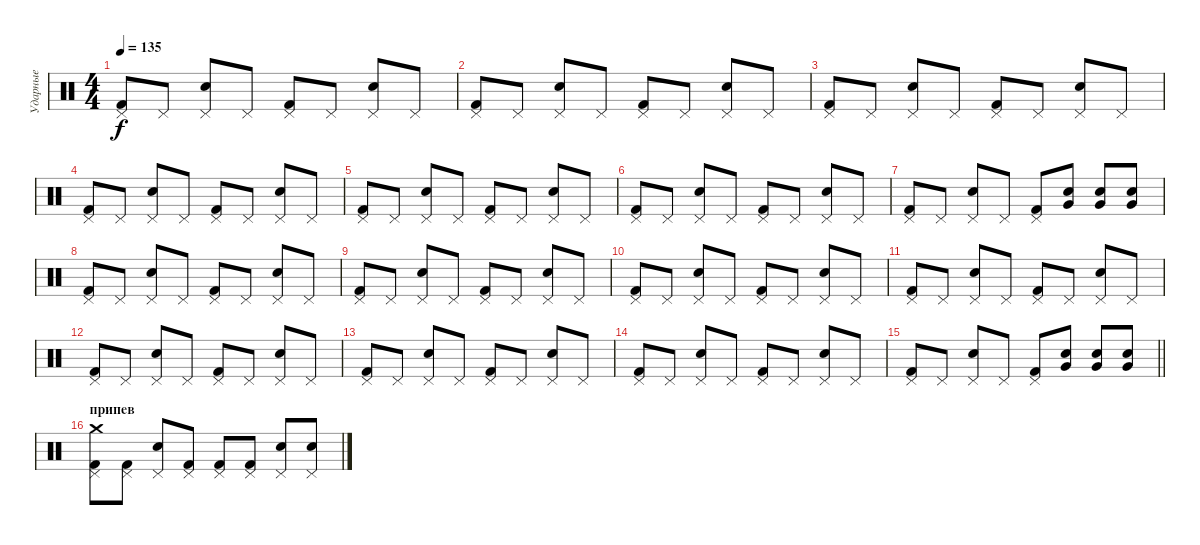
\track ("Ударные" "Ударные") {instrument percussion}
\staff {score}
\articulation defaults
\ts (4 4)
\tempo 135
\clef neutral
\ks c
("Pedal Hi-Hat (hit)" "Kick (hit) 2").8{dy f} "Pedal Hi-Hat (hit)".8 ("Pedal Hi-Hat (hit)" "Electric Snare (hit)").8 "Pedal Hi-Hat (hit)".8 ("Pedal Hi-Hat (hit)" "Kick (hit) 2").8 "Pedal Hi-Hat (hit)".8 ("Pedal Hi-Hat (hit)" "Electric Snare (hit)").8 "Pedal Hi-Hat (hit)".8 |
("Pedal Hi-Hat (hit)" "Kick (hit) 2").8 "Pedal Hi-Hat (hit)".8 ("Pedal Hi-Hat (hit)" "Electric Snare (hit)").8 "Pedal Hi-Hat (hit)".8 ("Pedal Hi-Hat (hit)" "Kick (hit) 2").8 "Pedal Hi-Hat (hit)".8 ("Pedal Hi-Hat (hit)" "Electric Snare (hit)").8 "Pedal Hi-Hat (hit)".8 |
("Pedal Hi-Hat (hit)" "Kick (hit) 2").8 "Pedal Hi-Hat (hit)".8 ("Pedal Hi-Hat (hit)" "Electric Snare (hit)").8 "Pedal Hi-Hat (hit)".8 ("Pedal Hi-Hat (hit)" "Kick (hit) 2").8 "Pedal Hi-Hat (hit)".8 ("Pedal Hi-Hat (hit)" "Electric Snare (hit)").8 "Pedal Hi-Hat (hit)".8 |
("Pedal Hi-Hat (hit)" "Kick (hit) 2").8 "Pedal Hi-Hat (hit)".8 ("Pedal Hi-Hat (hit)" "Electric Snare (hit)").8 "Pedal Hi-Hat (hit)".8 ("Pedal Hi-Hat (hit)" "Kick (hit) 2").8 "Pedal Hi-Hat (hit)".8 ("Pedal Hi-Hat (hit)" "Electric Snare (hit)").8 "Pedal Hi-Hat (hit)".8 |
("Pedal Hi-Hat (hit)" "Kick (hit) 2").8 "Pedal Hi-Hat (hit)".8 ("Pedal Hi-Hat (hit)" "Electric Snare (hit)").8 "Pedal Hi-Hat (hit)".8 ("Pedal Hi-Hat (hit)" "Kick (hit) 2").8 "Pedal Hi-Hat (hit)".8 ("Pedal Hi-Hat (hit)" "Electric Snare (hit)").8 "Pedal Hi-Hat (hit)".8 |
("Pedal Hi-Hat (hit)" "Kick (hit) 2").8 "Pedal Hi-Hat (hit)".8 ("Pedal Hi-Hat (hit)" "Electric Snare (hit)").8 "Pedal Hi-Hat (hit)".8 ("Pedal Hi-Hat (hit)" "Kick (hit) 2").8 "Pedal Hi-Hat (hit)".8 ("Pedal Hi-Hat (hit)" "Electric Snare (hit)").8 "Pedal Hi-Hat (hit)".8 |
("Pedal Hi-Hat (hit)" "Kick (hit) 2").8 "Pedal Hi-Hat (hit)".8 ("Pedal Hi-Hat (hit)" "Electric Snare (hit)").8 "Pedal Hi-Hat (hit)".8 ("Pedal Hi-Hat (hit)" "Kick (hit) 2").8 ("Electric Snare (hit)" "Very Low Tom (hit)").8 ("Electric Snare (hit)" "Very Low Tom (hit)").8 ("Electric Snare (hit)" "Very Low Tom (hit)").8 |
("Pedal Hi-Hat (hit)" "Kick (hit) 2").8 "Pedal Hi-Hat (hit)".8 ("Pedal Hi-Hat (hit)" "Electric Snare (hit)").8 "Pedal Hi-Hat (hit)".8 ("Pedal Hi-Hat (hit)" "Kick (hit) 2").8 "Pedal Hi-Hat (hit)".8 ("Pedal Hi-Hat (hit)" "Electric Snare (hit)").8 "Pedal Hi-Hat (hit)".8 |
("Pedal Hi-Hat (hit)" "Kick (hit) 2").8 "Pedal Hi-Hat (hit)".8 ("Pedal Hi-Hat (hit)" "Electric Snare (hit)").8 "Pedal Hi-Hat (hit)".8 ("Pedal Hi-Hat (hit)" "Kick (hit) 2").8 "Pedal Hi-Hat (hit)".8 ("Pedal Hi-Hat (hit)" "Electric Snare (hit)").8 "Pedal Hi-Hat (hit)".8 |
("Pedal Hi-Hat (hit)" "Kick (hit) 2").8 "Pedal Hi-Hat (hit)".8 ("Pedal Hi-Hat (hit)" "Electric Snare (hit)").8 "Pedal Hi-Hat (hit)".8 ("Pedal Hi-Hat (hit)" "Kick (hit) 2").8 "Pedal Hi-Hat (hit)".8 ("Pedal Hi-Hat (hit)" "Electric Snare (hit)").8 "Pedal Hi-Hat (hit)".8 |
("Pedal Hi-Hat (hit)" "Kick (hit) 2").8 "Pedal Hi-Hat (hit)".8 ("Pedal Hi-Hat (hit)" "Electric Snare (hit)").8 "Pedal Hi-Hat (hit)".8 ("Pedal Hi-Hat (hit)" "Kick (hit) 2").8 "Pedal Hi-Hat (hit)".8 ("Pedal Hi-Hat (hit)" "Electric Snare (hit)").8 "Pedal Hi-Hat (hit)".8 |
("Pedal Hi-Hat (hit)" "Kick (hit) 2").8 "Pedal Hi-Hat (hit)".8 ("Pedal Hi-Hat (hit)" "Electric Snare (hit)").8 "Pedal Hi-Hat (hit)".8 ("Pedal Hi-Hat (hit)" "Kick (hit) 2").8 "Pedal Hi-Hat (hit)".8 ("Pedal Hi-Hat (hit)" "Electric Snare (hit)").8 "Pedal Hi-Hat (hit)".8 |
("Pedal Hi-Hat (hit)" "Kick (hit) 2").8 "Pedal Hi-Hat (hit)".8 ("Pedal Hi-Hat (hit)" "Electric Snare (hit)").8 "Pedal Hi-Hat (hit)".8 ("Pedal Hi-Hat (hit)" "Kick (hit) 2").8 "Pedal Hi-Hat (hit)".8 ("Pedal Hi-Hat (hit)" "Electric Snare (hit)").8 "Pedal Hi-Hat (hit)".8 |
("Pedal Hi-Hat (hit)" "Kick (hit) 2").8 "Pedal Hi-Hat (hit)".8 ("Pedal Hi-Hat (hit)" "Electric Snare (hit)").8 "Pedal Hi-Hat (hit)".8 ("Pedal Hi-Hat (hit)" "Kick (hit) 2").8 "Pedal Hi-Hat (hit)".8 ("Pedal Hi-Hat (hit)" "Electric Snare (hit)").8 "Pedal Hi-Hat (hit)".8 |
\barLineRight lightlight
("Pedal Hi-Hat (hit)" "Kick (hit) 2").8 "Pedal Hi-Hat (hit)".8 ("Pedal Hi-Hat (hit)" "Electric Snare (hit)").8 "Pedal Hi-Hat (hit)".8 ("Pedal Hi-Hat (hit)" "Kick (hit) 2").8 ("Electric Snare (hit)" "Very Low Tom (hit)").8 ("Electric Snare (hit)" "Very Low Tom (hit)").8 ("Electric Snare (hit)" "Very Low Tom (hit)").8 |
\section ("" "припев")
("Crash medium (hit)" "Pedal Hi-Hat (hit)" "Kick (hit) 2").8 ("Pedal Hi-Hat (hit)" "Kick (hit) 2").8 ("Pedal Hi-Hat (hit)" "Electric Snare (hit)").8 ("Pedal Hi-Hat (hit)" "Kick (hit) 2").8 ("Pedal Hi-Hat (hit)" "Kick (hit) 2").8 ("Pedal Hi-Hat (hit)" "Kick (hit) 2").8 ("Pedal Hi-Hat (hit)" "Electric Snare (hit)").8 ("Pedal Hi-Hat (hit)" "Electric Snare (hit)").8
